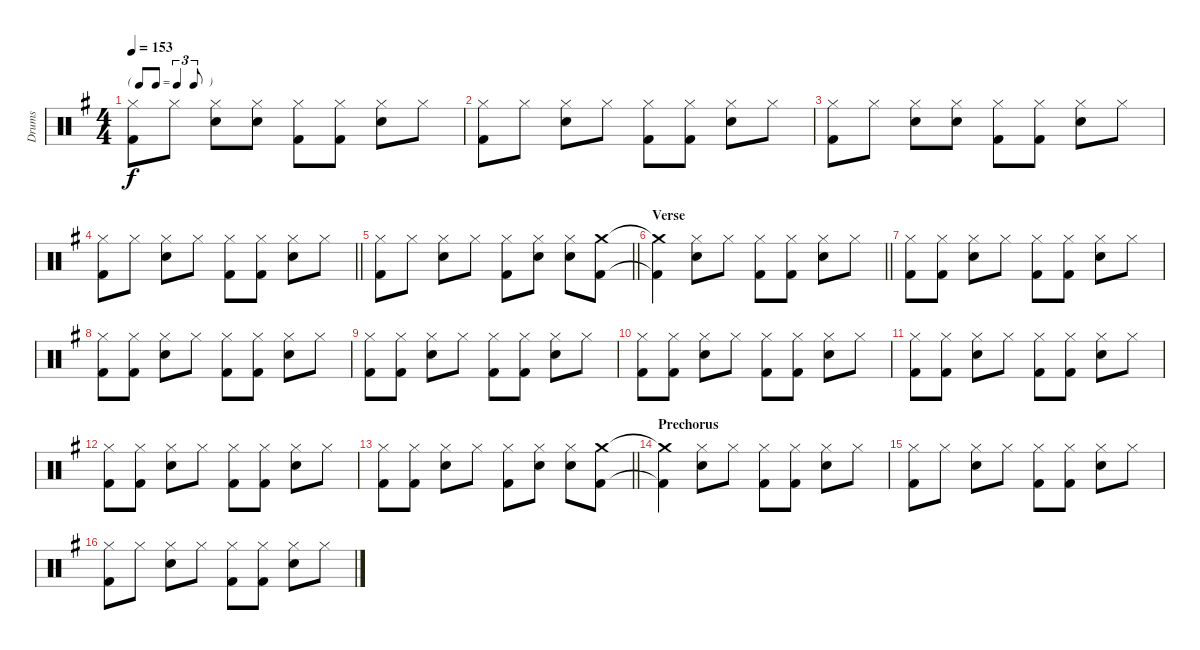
\track ("Drums" "Drums") {instrument percussion}
\staff {score}
\articulation defaults
\ts (4 4)
\tf triplet8th
\tempo 153
\clef neutral
\ks g
("Hi-Hat (closed)" "Kick (hit) 2").8{dy f} "Hi-Hat (closed)".8 ("Hi-Hat (closed)" "Electric Snare (hit)").8 ("Hi-Hat (closed)" "Electric Snare (hit)").8 ("Hi-Hat (closed)" "Kick (hit) 2").8 ("Hi-Hat (closed)" "Kick (hit) 2").8 ("Hi-Hat (closed)" "Electric Snare (hit)").8 "Hi-Hat (closed)".8 |
("Hi-Hat (closed)" "Kick (hit) 2").8 "Hi-Hat (closed)".8 ("Hi-Hat (closed)" "Electric Snare (hit)").8 "Hi-Hat (closed)".8 ("Hi-Hat (closed)" "Kick (hit) 2").8 ("Hi-Hat (closed)" "Kick (hit) 2").8 ("Hi-Hat (closed)" "Electric Snare (hit)").8 "Hi-Hat (closed)".8 |
("Hi-Hat (closed)" "Kick (hit) 2").8 "Hi-Hat (closed)".8 ("Hi-Hat (closed)" "Electric Snare (hit)").8 ("Hi-Hat (closed)" "Electric Snare (hit)").8 ("Hi-Hat (closed)" "Kick (hit) 2").8 ("Hi-Hat (closed)" "Kick (hit) 2").8 ("Hi-Hat (closed)" "Electric Snare (hit)").8 "Hi-Hat (closed)".8 |
\barLineRight lightlight
("Hi-Hat (closed)" "Kick (hit) 2").8 "Hi-Hat (closed)".8 ("Hi-Hat (closed)" "Electric Snare (hit)").8 "Hi-Hat (closed)".8 ("Hi-Hat (closed)" "Kick (hit) 2").8 ("Hi-Hat (closed)" "Kick (hit) 2").8 ("Hi-Hat (closed)" "Electric Snare (hit)").8 "Hi-Hat (closed)".8 |
\barLineRight lightlight
("Hi-Hat (closed)" "Kick (hit) 2").8 "Hi-Hat (closed)".8 ("Hi-Hat (closed)" "Electric Snare (hit)").8 "Hi-Hat (closed)".8 ("Hi-Hat (closed)" "Kick (hit) 2").8 ("Hi-Hat (closed)" "Electric Snare (hit)").8 ("Hi-Hat (closed)" "Electric Snare (hit)").8 ("Crash medium (hit)" "Kick (hit) 2").8 |
\section ("" "Verse")
\barLineRight lightlight
("Crash medium (hit)"{t} "Kick (hit) 2"{t}).4 ("Hi-Hat (closed)" "Electric Snare (hit)").8 "Hi-Hat (closed)".8 ("Hi-Hat (closed)" "Kick (hit) 2").8 ("Hi-Hat (closed)" "Kick (hit) 2").8 ("Hi-Hat (closed)" "Electric Snare (hit)").8 "Hi-Hat (closed)".8 |
("Hi-Hat (closed)" "Kick (hit) 2").8 ("Hi-Hat (closed)" "Kick (hit) 2").8 ("Hi-Hat (closed)" "Electric Snare (hit)").8 "Hi-Hat (closed)".8 ("Hi-Hat (closed)" "Kick (hit) 2").8 ("Hi-Hat (closed)" "Kick (hit) 2").8 ("Hi-Hat (closed)" "Electric Snare (hit)").8 "Hi-Hat (closed)".8 |
("Hi-Hat (closed)" "Kick (hit) 2").8 ("Hi-Hat (closed)" "Kick (hit) 2").8 ("Hi-Hat (closed)" "Electric Snare (hit)").8 "Hi-Hat (closed)".8 ("Hi-Hat (closed)" "Kick (hit) 2").8 ("Hi-Hat (closed)" "Kick (hit) 2").8 ("Hi-Hat (closed)" "Electric Snare (hit)").8 "Hi-Hat (closed)".8 |
("Hi-Hat (closed)" "Kick (hit) 2").8 ("Hi-Hat (closed)" "Kick (hit) 2").8 ("Hi-Hat (closed)" "Electric Snare (hit)").8 "Hi-Hat (closed)".8 ("Hi-Hat (closed)" "Kick (hit) 2").8 ("Hi-Hat (closed)" "Kick (hit) 2").8 ("Hi-Hat (closed)" "Electric Snare (hit)").8 "Hi-Hat (closed)".8 |
("Hi-Hat (closed)" "Kick (hit) 2").8 ("Hi-Hat (closed)" "Kick (hit) 2").8 ("Hi-Hat (closed)" "Electric Snare (hit)").8 "Hi-Hat (closed)".8 ("Hi-Hat (closed)" "Kick (hit) 2").8 ("Hi-Hat (closed)" "Kick (hit) 2").8 ("Hi-Hat (closed)" "Electric Snare (hit)").8 "Hi-Hat (closed)".8 |
("Hi-Hat (closed)" "Kick (hit) 2").8 ("Hi-Hat (closed)" "Kick (hit) 2").8 ("Hi-Hat (closed)" "Electric Snare (hit)").8 "Hi-Hat (closed)".8 ("Hi-Hat (closed)" "Kick (hit) 2").8 ("Hi-Hat (closed)" "Kick (hit) 2").8 ("Hi-Hat (closed)" "Electric Snare (hit)").8 "Hi-Hat (closed)".8 |
("Hi-Hat (closed)" "Kick (hit) 2").8 ("Hi-Hat (closed)" "Kick (hit) 2").8 ("Hi-Hat (closed)" "Electric Snare (hit)").8 "Hi-Hat (closed)".8 ("Hi-Hat (closed)" "Kick (hit) 2").8 ("Hi-Hat (closed)" "Kick (hit) 2").8 ("Hi-Hat (closed)" "Electric Snare (hit)").8 "Hi-Hat (closed)".8 |
\barLineRight lightlight
("Hi-Hat (closed)" "Kick (hit) 2").8 ("Hi-Hat (closed)" "Kick (hit) 2").8 ("Hi-Hat (closed)" "Electric Snare (hit)").8 "Hi-Hat (closed)".8 ("Hi-Hat (closed)" "Kick (hit) 2").8 ("Hi-Hat (closed)" "Electric Snare (hit)").8 ("Hi-Hat (closed)" "Electric Snare (hit)").8 ("Crash medium (hit)" "Kick (hit) 2").8 |
\section ("" "Prechorus")
("Crash medium (hit)"{t} "Kick (hit) 2"{t}).4 ("Hi-Hat (closed)" "Electric Snare (hit)").8 "Hi-Hat (closed)".8 ("Hi-Hat (closed)" "Kick (hit) 2").8 ("Hi-Hat (closed)" "Kick (hit) 2").8 ("Hi-Hat (closed)" "Electric Snare (hit)").8 "Hi-Hat (closed)".8 |
("Hi-Hat (closed)" "Kick (hit) 2").8 "Hi-Hat (closed)".8 ("Hi-Hat (closed)" "Electric Snare (hit)").8 "Hi-Hat (closed)".8 ("Hi-Hat (closed)" "Kick (hit) 2").8 ("Hi-Hat (closed)" "Kick (hit) 2").8 ("Hi-Hat (closed)" "Electric Snare (hit)").8 "Hi-Hat (closed)".8 |
("Hi-Hat (closed)" "Kick (hit) 2").8 "Hi-Hat (closed)".8 ("Hi-Hat (closed)" "Electric Snare (hit)").8 "Hi-Hat (closed)".8 ("Hi-Hat (closed)" "Kick (hit) 2").8 ("Hi-Hat (closed)" "Kick (hit) 2").8 ("Hi-Hat (closed)" "Electric Snare (hit)").8 "Hi-Hat (closed)".8
